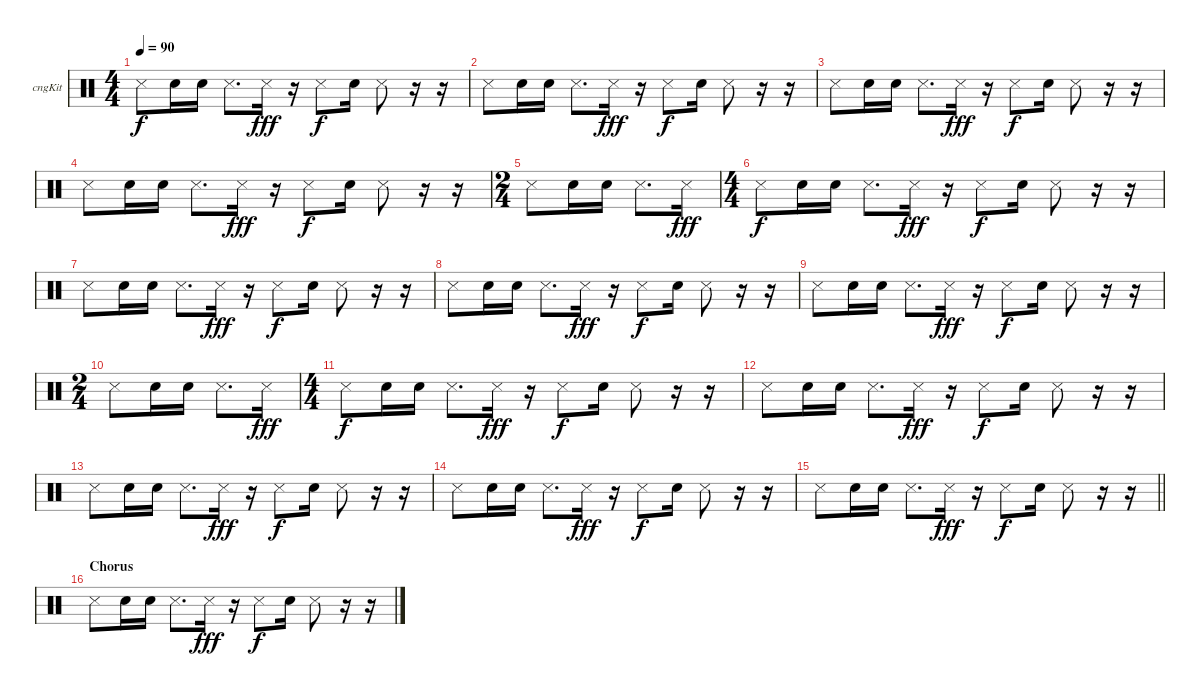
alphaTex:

\bracketExtendMode groupsimilarinstruments
\firstSystemTrackNameOrientation horizontal
\otherSystemsTrackNameOrientation horizontal
\track ("Congas" "cngKit") {multiBarRest instrument percussion}
\staff {score}
\articulation defaults
\ts (4 4)
\beaming (8 2 2 2 2)
\tempo 90
\clef neutral
\ks c "Snare (side stick) 3".8{dy f} "Snare (hit) 2".16 "Snare (hit) 2".16 "Snare (side stick) 3".8{d} "Snare (side stick) 3".16{dy fff}
r.16 "Snare (side stick) 3".8{dy f} "Snare (hit) 2".16 "Snare (side stick) 3".8 r.16 r.16 |
"Snare (side stick) 3".8 "Snare (hit) 2".16 "Snare (hit) 2".16 "Snare (side stick) 3".8{d} "Snare (side stick) 3".16{dy fff} r.16 "Snare (side stick) 3".8{dy f} "Snare (hit) 2".16 "Snare (side stick) 3".8 r.16 r.16 |
"Snare (side stick) 3".8 "Snare (hit) 2".16 "Snare (hit) 2".16 "Snare (side stick) 3".8{d} "Snare (side stick) 3".16{dy fff} r.16 "Snare (side stick) 3".8{dy f} "Snare (hit) 2".16 "Snare (side stick) 3".8 r.16 r.16 |
"Snare (side stick) 3".8 "Snare (hit) 2".16 "Snare (hit) 2".16 "Snare (side stick) 3".8{d} "Snare (side stick) 3".16{dy fff} r.16 "Snare (side stick) 3".8{dy f} "Snare (hit) 2".16 "Snare (side stick) 3".8 r.16 r.16 |
\ts (2 4)
\beaming (8 2 2)
"Snare (side stick) 3".8 "Snare (hit) 2".16 "Snare (hit) 2".16 "Snare (side stick) 3".8{d} "Snare (side stick) 3".16{dy fff} |
\ts (4 4)
\beaming (8 2 2 2 2)
"Snare (side stick) 3".8{dy f} "Snare (hit) 2".16 "Snare (hit) 2".16 "Snare (side stick) 3".8{d} "Snare (side stick) 3".16{dy fff} r.16 "Snare (side stick) 3".8{dy f} "Snare (hit) 2".16 "Snare (side stick) 3".8 r.16 r.16 |
"Snare (side stick) 3".8 "Snare (hit) 2".16 "Snare (hit) 2".16 "Snare (side stick) 3".8{d} "Snare (side stick) 3".16{dy fff} r.16 "Snare (side stick) 3".8{dy f} "Snare (hit) 2".16 "Snare (side stick) 3".8 r.16 r.16 |
"Snare (side stick) 3".8 "Snare (hit) 2".16 "Snare (hit) 2".16 "Snare (side stick) 3".8{d} "Snare (side stick) 3".16{dy fff} r.16 "Snare (side stick) 3".8{dy f} "Snare (hit) 2".16 "Snare (side stick) 3".8 r.16 r.16 |
"Snare (side stick) 3".8 "Snare (hit) 2".16 "Snare (hit) 2".16 "Snare (side stick) 3".8{d} "Snare (side stick) 3".16{dy fff} r.16 "Snare (side stick) 3".8{dy f} "Snare (hit) 2".16 "Snare (side stick) 3".8 r.16 r.16 |
\ts (2 4)
\beaming (8 2 2)
"Snare (side stick) 3".8 "Snare (hit) 2".16 "Snare (hit) 2".16 "Snare (side stick) 3".8{d} "Snare (side stick) 3".16{dy fff} |
\ts (4 4)
\beaming (8 2 2 2 2)
"Snare (side stick) 3".8{dy f} "Snare (hit) 2".16 "Snare (hit) 2".16 "Snare (side stick) 3".8{d} "Snare (side stick) 3".16{dy fff} r.16 "Snare (side stick) 3".8{dy f} "Snare (hit) 2".16 "Snare (side stick) 3".8 r.16 r.16 |
"Snare (side stick) 3".8 "Snare (hit) 2".16 "Snare (hit) 2".16 "Snare (side stick) 3".8{d} "Snare (side stick) 3".16{dy fff} r.16 "Snare (side stick) 3".8{dy f} "Snare (hit) 2".16 "Snare (side stick) 3".8 r.16 r.16 |
"Snare (side stick) 3".8 "Snare (hit) 2".16 "Snare (hit) 2".16 "Snare (side stick) 3".8{d} "Snare (side stick) 3".16{dy fff} r.16 "Snare (side stick) 3".8{dy f} "Snare (hit) 2".16 "Snare (side stick) 3".8 r.16 r.16 |
"Snare (side stick) 3".8 "Snare (hit) 2".16 "Snare (hit) 2".16 "Snare (side stick) 3".8{d} "Snare (side stick) 3".16{dy fff} r.16 "Snare (side stick) 3".8{dy f} "Snare (hit) 2".16 "Snare (side stick) 3".8 r.16 r.16 |
\barLineRight lightlight "Snare (side stick) 3".8 "Snare (hit) 2".16 "Snare (hit) 2".16 "Snare (side stick) 3".8{d} "Snare (side stick) 3".16{dy fff}
r.16 "Snare (side stick) 3".8{dy f} "Snare (hit) 2".16 "Snare (side stick) 3".8 r.16 r.16 |
\section ("" "Chorus")
"Snare (side stick) 3".8 "Snare (hit) 2".16 "Snare (hit) 2".16 "Snare (side stick) 3".8{d} "Snare (side stick) 3".16{dy fff} r.16 "Snare (side stick) 3".8{dy f} "Snare (hit) 2".16 "Snare (side stick) 3".8 r.16 r.16
